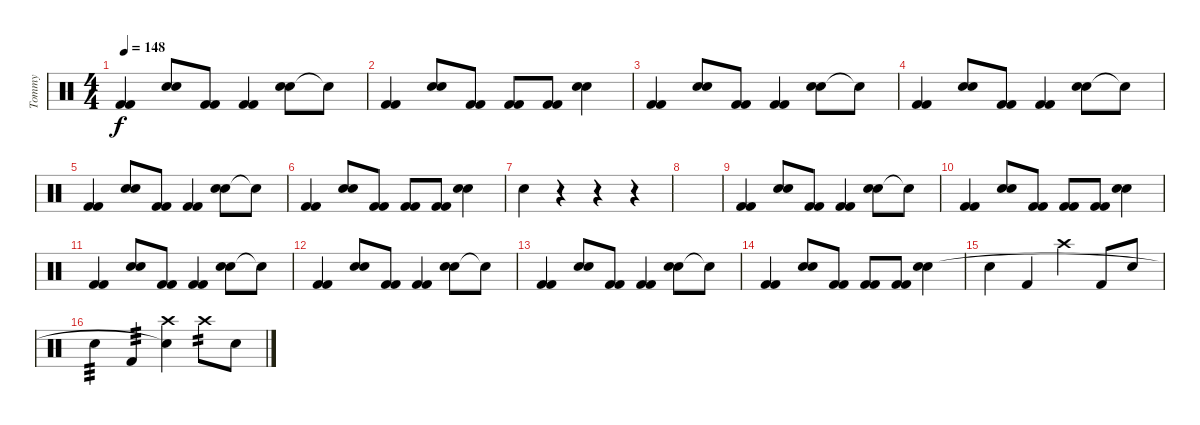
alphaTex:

\track ("Tommy" "Tommy") {instrument percussion}
\staff {score}
\articulation defaults
\ts (4 4)
\tempo 148
\clef neutral
\ks c
("Kick (hit) 2" "Kick (hit) 2").4{dy f} ("Snare (hit) 2" "Snare (hit) 2").8 ("Kick (hit) 2" "Kick (hit) 2").8 ("Kick (hit) 2" "Kick (hit) 2").4 ("Snare (hit) 2" "Snare (hit) 2").8 "Snare (hit)"{t}.8 |
("Kick (hit) 2" "Kick (hit) 2").4 ("Snare (hit) 2" "Snare (hit) 2").8 ("Kick (hit) 2" "Kick (hit) 2").8 ("Kick (hit) 2" "Kick (hit) 2").8 ("Kick (hit) 2" "Kick (hit) 2").8 ("Snare (hit) 2" "Snare (hit) 2").4 |
("Kick (hit) 2" "Kick (hit) 2").4 ("Snare (hit) 2" "Snare (hit) 2").8 ("Kick (hit) 2" "Kick (hit) 2").8 ("Kick (hit) 2" "Kick (hit) 2").4 ("Snare (hit) 2" "Snare (hit) 2").8 "Snare (hit)"{t}.8 |
("Kick (hit) 2" "Kick (hit) 2").4 ("Snare (hit) 2" "Snare (hit) 2").8 ("Kick (hit) 2" "Kick (hit) 2").8 ("Kick (hit) 2" "Kick (hit) 2").4 ("Snare (hit) 2" "Snare (hit) 2").8 "Snare (hit)"{t}.8 |
("Kick (hit) 2" "Kick (hit) 2").4 ("Snare (hit) 2" "Snare (hit) 2").8 ("Kick (hit) 2" "Kick (hit) 2").8 ("Kick (hit) 2" "Kick (hit) 2").4 ("Snare (hit) 2" "Snare (hit) 2").8 "Snare (hit)"{t}.8 |
("Kick (hit) 2" "Kick (hit) 2").4 ("Snare (hit) 2" "Snare (hit) 2").8 ("Kick (hit) 2" "Kick (hit) 2").8 ("Kick (hit) 2" "Kick (hit) 2").8 ("Kick (hit) 2" "Kick (hit) 2").8 ("Snare (hit) 2" "Snare (hit) 2").4 |
"Snare (hit) 2".4 r.4 r.4 r.4 |
|
("Kick (hit) 2" "Kick (hit) 2").4 ("Snare (hit) 2" "Snare (hit) 2").8 ("Kick (hit) 2" "Kick (hit) 2").8 ("Kick (hit) 2" "Kick (hit) 2").4 ("Snare (hit) 2" "Snare (hit) 2").8 "Snare (hit)"{t}.8 |
("Kick (hit) 2" "Kick (hit) 2").4 ("Snare (hit) 2" "Snare (hit) 2").8 ("Kick (hit) 2" "Kick (hit) 2").8 ("Kick (hit) 2" "Kick (hit) 2").8 ("Kick (hit) 2" "Kick (hit) 2").8 ("Snare (hit) 2" "Snare (hit) 2").4 |
("Kick (hit) 2" "Kick (hit) 2").4 ("Snare (hit) 2" "Snare (hit) 2").8 ("Kick (hit) 2" "Kick (hit) 2").8 ("Kick (hit) 2" "Kick (hit) 2").4 ("Snare (hit) 2" "Snare (hit) 2").8 "Snare (hit)"{t}.8 |
("Kick (hit) 2" "Kick (hit) 2").4 ("Snare (hit) 2" "Snare (hit) 2").8 ("Kick (hit) 2" "Kick (hit) 2").8 ("Kick (hit) 2" "Kick (hit) 2").4 ("Snare (hit) 2" "Snare (hit) 2").8 "Snare (hit)"{t}.8 |
("Kick (hit) 2" "Kick (hit) 2").4 ("Snare (hit) 2" "Snare (hit) 2").8 ("Kick (hit) 2" "Kick (hit) 2").8 ("Kick (hit) 2" "Kick (hit) 2").4 ("Snare (hit) 2" "Snare (hit) 2").8 "Snare (hit)"{t}.8 |
("Kick (hit) 2" "Kick (hit) 2").4 ("Snare (hit) 2" "Snare (hit) 2").8 ("Kick (hit) 2" "Kick (hit) 2").8 ("Kick (hit) 2" "Kick (hit) 2").8 ("Kick (hit) 2" "Kick (hit) 2").8 ("Snare (hit) 2" "Snare (hit) 2").4 |
"Snare (hit) 2".4 "Kick (hit) 2".4 "Crash high (hit)".4 "Kick (hit) 2".8 "Snare (hit) 2".8 |
"Snare (hit) 2".4{tp 3} "Kick (hit) 2".4{tp 3} ("Crash high (hit)" "Snare (hit)"{t}).4 "Crash high (hit)".8{tp 2} "Snare (hit) 2".8
